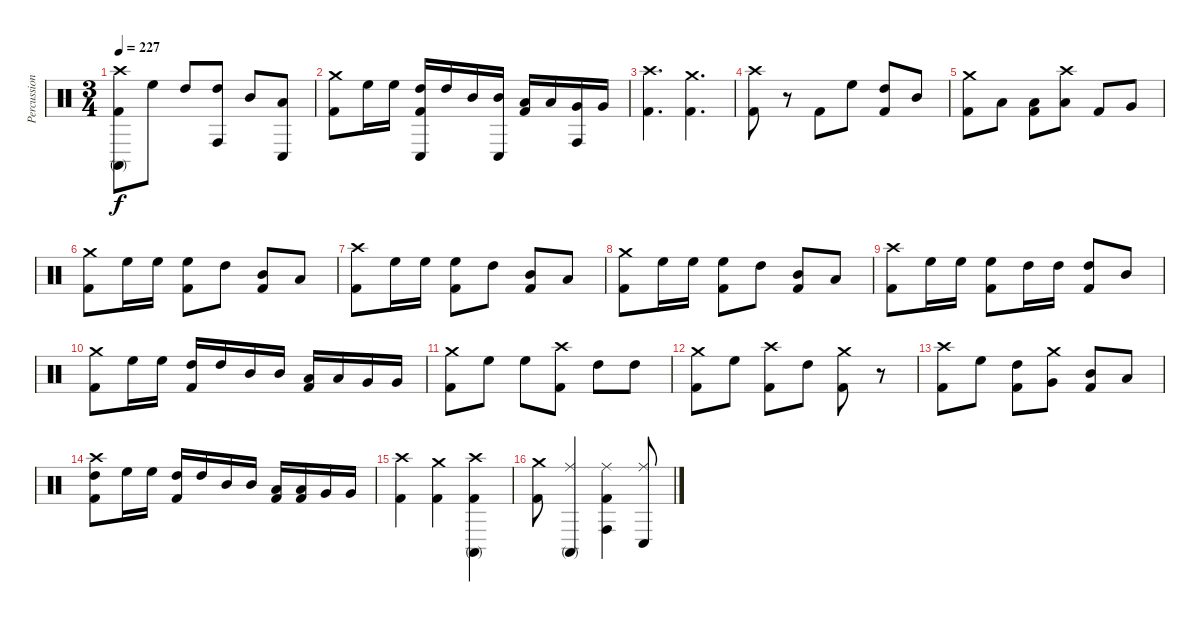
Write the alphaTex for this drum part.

\track ("Percussion" "Percussion") {instrument percussion}
\staff {score}
\articulation defaults
\ts (3 4)
\tempo 227
\clef neutral
\ks c
("Crash high (hit)" "Conga high (mute)" "Kick (hit) 2").8{dy f} "High Floor Tom (hit)".8 "High Tom (hit)".8 ("Conga high (hit)" "High Tom (hit)").8 "Mid Tom (hit)".8 ("Conga low (hit)" "Low Tom (hit)").8 |
("Crash medium (hit)" "Kick (hit) 2").8 "High Floor Tom (hit)".16 "High Floor Tom (hit)".16 ("Conga low (hit)" "High Tom (hit)" "Kick (hit) 2").16 "High Tom (hit)".16 "Mid Tom (hit)".16 ("Conga low (hit)" "Mid Tom (hit)").16 ("Low Tom (hit)" "Kick (hit) 2").16 "Low Tom (hit)".16 ("Conga high (hit)" "Very Low Tom (hit)").16 "Very Low Tom (hit)".16 |
("Crash high (hit)" "Kick (hit) 2").4{d} ("Crash medium (hit)" "Kick (hit) 2").4{d} |
("Crash high (hit)" "Kick (hit) 2").8 r.8 "Kick (hit) 2".8 "High Floor Tom (hit)".8 ("High Tom (hit)" "Kick (hit) 2").8 "Mid Tom (hit)".8 |
("Crash medium (hit)" "Kick (hit) 2").8 "Low Tom (hit)".8 ("Low Tom (hit)" "Kick (hit) 2").8 ("Crash high (hit)" "Low Tom (hit)").8 "Kick (hit) 2".8 "Very Low Tom (hit)".8 |
("Crash medium (hit)" "Kick (hit) 2").8 "High Floor Tom (hit)".16 "High Floor Tom (hit)".16 ("High Floor Tom (hit)" "Kick (hit) 2").8 "High Tom (hit)".8 ("Mid Tom (hit)" "Kick (hit) 2").8 "Low Tom (hit)".8 |
("Crash high (hit)" "Kick (hit) 2").8 "High Floor Tom (hit)".16 "High Floor Tom (hit)".16 ("High Floor Tom (hit)" "Kick (hit) 2").8 "High Tom (hit)".8 ("Mid Tom (hit)" "Kick (hit) 2").8 "Low Tom (hit)".8 |
("Crash medium (hit)" "Kick (hit) 2").8 "High Floor Tom (hit)".16 "High Floor Tom (hit)".16 ("High Floor Tom (hit)" "Kick (hit) 2").8 "High Tom (hit)".8 ("Mid Tom (hit)" "Kick (hit) 2").8 "Low Tom (hit)".8 |
("Crash high (hit)" "Kick (hit) 2").8 "High Floor Tom (hit)".16 "High Floor Tom (hit)".16 ("High Floor Tom (hit)" "Kick (hit) 2").8 "High Tom (hit)".16 "High Tom (hit)".16 ("High Tom (hit)" "Kick (hit) 2").8 "Mid Tom (hit)".8 |
("Crash medium (hit)" "Kick (hit) 2").8 "High Floor Tom (hit)".16 "High Floor Tom (hit)".16 ("High Tom (hit)" "Kick (hit) 2").16 "High Tom (hit)".16 "Mid Tom (hit)".16 "Mid Tom (hit)".16 ("Low Tom (hit)" "Kick (hit) 2").16 "Low Tom (hit)".16 "Very Low Tom (hit)".16 "Very Low Tom (hit)".16 |
("Crash medium (hit)" "Kick (hit) 2").8 "High Floor Tom (hit)".8 "High Floor Tom (hit)".8 ("Crash high (hit)" "Kick (hit) 2").8 "High Tom (hit)".8 "High Tom (hit)".8 |
("Crash medium (hit)" "Kick (hit) 2").8 "High Floor Tom (hit)".8 ("Crash high (hit)" "Kick (hit) 2").8 "High Tom (hit)".8 ("Crash medium (hit)" "Kick (hit) 2").8 r.8 |
("Crash high (hit)" "Kick (hit) 2").8 "High Floor Tom (hit)".8 ("High Tom (hit)" "Kick (hit) 2").8 ("Crash medium (hit)" "Very Low Tom (hit)").8 ("Mid Tom (hit)" "Kick (hit) 2").8 "Low Tom (hit)".8 |
("Crash high (hit)" "High Tom (hit)" "Kick (hit) 2").8 "High Floor Tom (hit)".16 "High Floor Tom (hit)".16 ("High Tom (hit)" "Kick (hit) 2").16 "High Tom (hit)".16 "Mid Tom (hit)".16 "Mid Tom (hit)".16 ("Low Tom (hit)" "Kick (hit) 2").16 ("Low Tom (hit)" "Kick (hit) 2").16 "Very Low Tom (hit)".16 "Very Low Tom (hit)".16 |
("Crash high (hit)" "Kick (hit) 2").4 ("Crash medium (hit)" "Kick (hit) 2").4 ("Crash high (hit)" "Conga high (mute)" "Kick (hit) 2").4 |
("Crash medium (hit)" "Kick (hit) 2").8 ("Ride (middle)" "Conga high (mute)").4 ("Ride (middle)" "Conga high (hit)" "Kick (hit) 2").4 ("Ride (middle)" "Conga low (hit)").8
